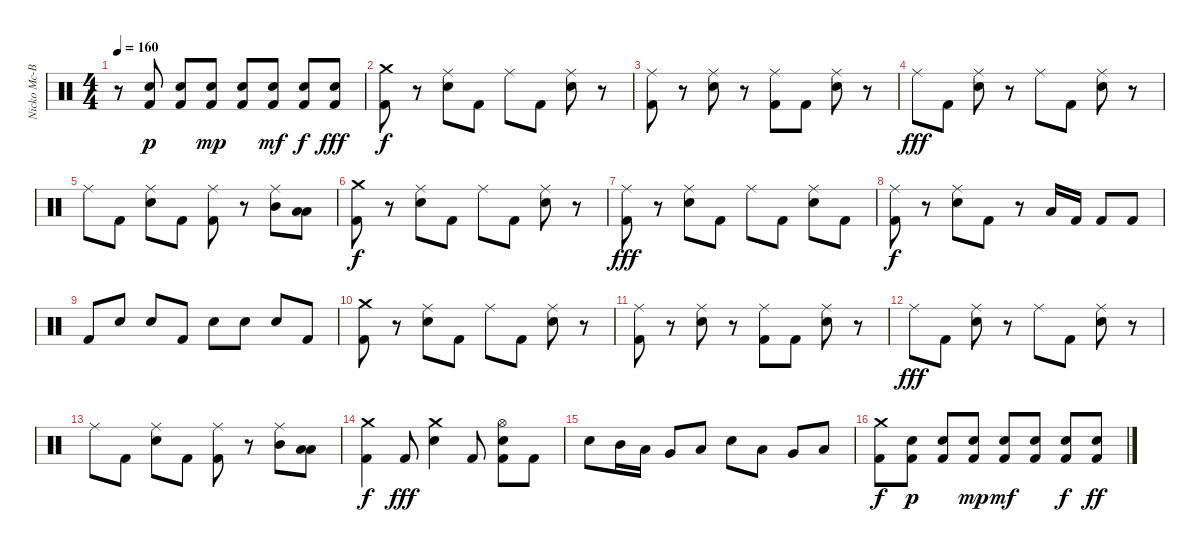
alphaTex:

\track ("Nicko Mc-Brain" "Nicko Mc-B") {instrument percussion}
\staff {score}
\articulation defaults
\ts (4 4)
\tempo 160
\clef neutral
\ks c
r.8{dy ff} ("Snare (hit) 2" "Kick (hit) 2").8{dy p} ("Snare (hit) 2" "Kick (hit) 2").8 ("Snare (hit) 2" "Kick (hit) 2").8{dy mp} ("Snare (hit) 2" "Kick (hit) 2").8 ("Snare (hit) 2" "Kick (hit) 2").8{dy mf} ("Snare (hit) 2" "Kick (hit) 2").8{dy f} ("Snare (hit) 2" "Kick (hit) 2").8{dy fff} |
("Crash medium (hit)" "Kick (hit) 2").8{dy f} r.8 ("Ride (middle)" "Snare (hit) 2").8 "Kick (hit) 2".8 "Ride (middle)".8 "Kick (hit) 2".8 ("Ride (middle)" "Snare (hit) 2").8 r.8 |
("Ride (middle)" "Kick (hit) 2").8 r.8 ("Ride (middle)" "Snare (hit) 2").8 r.8 ("Ride (middle)" "Kick (hit) 2").8 "Kick (hit) 2".8 ("Ride (middle)" "Snare (hit) 2").8 r.8 |
"Ride (middle)".8{dy fff} "Kick (hit) 2".8 ("Ride (middle)" "Snare (hit) 2").8 r.8 "Ride (middle)".8 "Kick (hit) 2".8 ("Ride (middle)" "Snare (hit) 2").8 r.8 |
"Ride (middle)".8 "Kick (hit) 2".8 ("Ride (middle)" "Snare (hit) 2").8 "Kick (hit) 2".8 ("Ride (middle)" "Kick (hit) 2").8 r.8 ("Ride (middle)" "Mid Tom (hit)").8 ("Low Floor Tom (hit)" "Low Floor Tom (hit)").8 |
("Crash medium (hit)" "Kick (hit) 2").8{dy f} r.8 ("Ride (middle)" "Snare (hit) 2").8 "Kick (hit) 2".8 "Ride (middle)".8 "Kick (hit) 2".8 ("Ride (middle)" "Snare (hit) 2").8 r.8 |
("Ride (middle)" "Kick (hit) 2").8{dy fff} r.8 ("Ride (middle)" "Snare (hit) 2").8 "Kick (hit) 2".8 "Ride (middle)".8 "Kick (hit) 2".8 ("Ride (middle)" "Snare (hit) 2").8 "Kick (hit) 2".8 |
("Ride (middle)" "Kick (hit) 2").8{dy f} r.8 ("Ride (middle)" "Snare (hit) 2").8 "Kick (hit) 2".8 r.8 "Low Floor Tom (hit)".16 "Kick (hit) 2".16 "Kick (hit) 2".8 "Kick (hit) 2".8 |
"Kick (hit) 2".8 "Snare (hit) 2".8 "Snare (hit) 2".8 "Kick (hit) 2".8 "Snare (hit) 2".8 "Snare (hit) 2".8 "Snare (hit) 2".8 "Kick (hit) 2".8 |
("Crash medium (hit)" "Kick (hit) 2").8 r.8 ("Ride (middle)" "Snare (hit) 2").8 "Kick (hit) 2".8 "Ride (middle)".8 "Kick (hit) 2".8 ("Ride (middle)" "Snare (hit) 2").8 r.8 |
("Ride (middle)" "Kick (hit) 2").8 r.8 ("Ride (middle)" "Snare (hit) 2").8 r.8 ("Ride (middle)" "Kick (hit) 2").8 "Kick (hit) 2".8 ("Ride (middle)" "Snare (hit) 2").8 r.8 |
"Ride (middle)".8{dy fff} "Kick (hit) 2".8 ("Ride (middle)" "Snare (hit) 2").8 r.8 "Ride (middle)".8 "Kick (hit) 2".8 ("Ride (middle)" "Snare (hit) 2").8 r.8 |
"Ride (middle)".8 "Kick (hit) 2".8 ("Ride (middle)" "Snare (hit) 2").8 "Kick (hit) 2".8 ("Ride (middle)" "Kick (hit) 2").8 r.8 ("Ride (middle)" "Mid Tom (hit)").8 ("Low Floor Tom (hit)" "Low Floor Tom (hit)").8 |
("Crash medium (hit)" "Kick (hit) 2").4{dy f} "Kick (hit) 2".8{dy fff} ("Crash medium (hit)" "Snare (hit) 2").4 "Kick (hit) 2".8 ("Hi-Hat (open)" "Snare (hit) 2" "Kick (hit) 2").8 "Kick (hit) 2".8 |
"Snare (hit) 2".8 "Mid Tom (hit)".16 "Low Tom (hit)".16 "Very Low Tom (hit)".8 "Low Floor Tom (hit)".8 "Snare (hit) 2".8 "Low Tom (hit)".8 "Very Low Tom (hit)".8 "Low Floor Tom (hit)".8 |
("Crash medium (hit)" "Kick (hit) 2").8{dy f} ("Snare (hit) 2" "Kick (hit) 2").8{dy p} ("Snare (hit) 2" "Kick (hit) 2").8 ("Snare (hit) 2" "Kick (hit) 2").8{dy mp} ("Snare (hit) 2" "Kick (hit) 2").8{dy mf} ("Snare (hit) 2" "Kick (hit) 2").8 ("Snare (hit) 2" "Kick (hit) 2").8{dy f} ("Snare (hit) 2" "Kick (hit) 2").8{dy ff}
